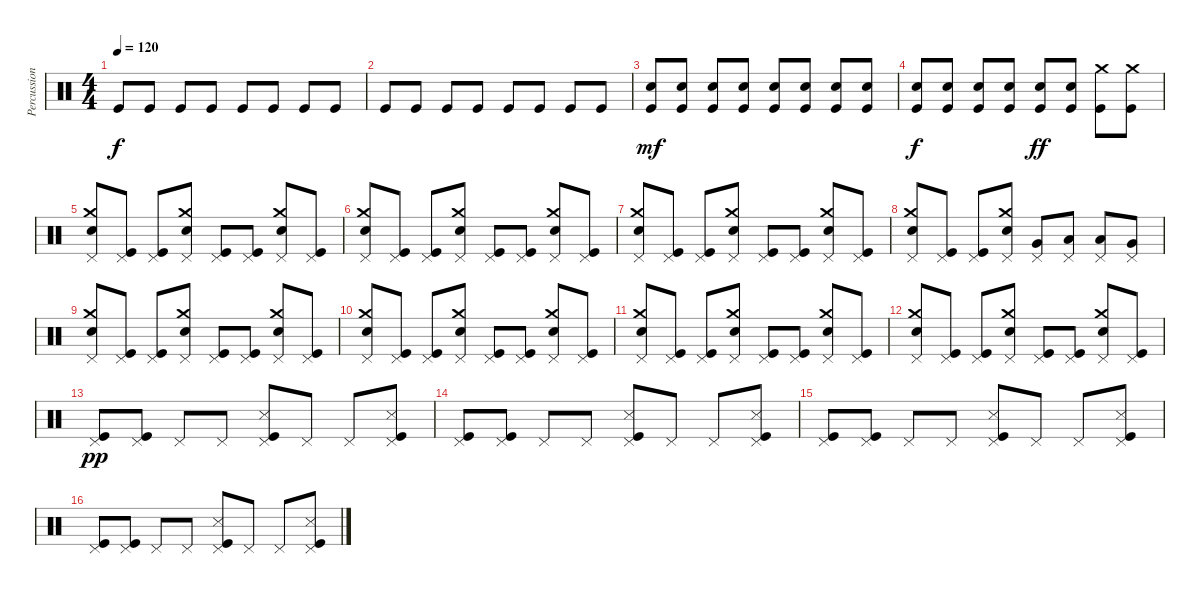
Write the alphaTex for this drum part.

\track ("Percussions" "Percussion") {instrument percussion}
\staff {score}
\articulation defaults
\ts (4 4)
\tempo 120
\clef neutral
\ks c "Kick (hit)".8{dy f} "Kick (hit)".8 "Kick (hit)".8 "Kick (hit)".8 "Kick (hit)".8 "Kick (hit)".8 "Kick (hit)".8 "Kick (hit)".8
|
"Kick (hit)".8 "Kick (hit)".8 "Kick (hit)".8 "Kick (hit)".8 "Kick (hit)".8 "Kick (hit)".8 "Kick (hit)".8 "Kick (hit)".8 |
("Electric Snare (hit)" "Kick (hit)").8{dy mf} ("Electric Snare (hit)" "Kick (hit)").8 ("Electric Snare (hit)" "Kick (hit)").8 ("Electric Snare (hit)" "Kick (hit)").8 ("Electric Snare (hit)" "Kick (hit)").8 ("Electric Snare (hit)" "Kick (hit)").8 ("Electric Snare (hit)" "Kick (hit)").8 ("Electric Snare (hit)" "Kick (hit)").8 |
("Electric Snare (hit)" "Kick (hit)").8{dy f} ("Electric Snare (hit)" "Kick (hit)").8 ("Electric Snare (hit)" "Kick (hit)").8 ("Electric Snare (hit)" "Kick (hit)").8 ("Electric Snare (hit)" "Kick (hit)").8{dy ff} ("Electric Snare (hit)" "Kick (hit)").8 ("Crash medium (hit)" "Kick (hit)").8 ("Crash medium (hit)" "Kick (hit)").8 |
("Crash medium (hit)" "Electric Snare (hit)" "Pedal Hi-Hat (hit)").8 ("Kick (hit)" "Pedal Hi-Hat (hit)").8 ("Kick (hit)" "Pedal Hi-Hat (hit)").8 ("Crash medium (hit)" "Electric Snare (hit)" "Pedal Hi-Hat (hit)").8 ("Kick (hit)" "Pedal Hi-Hat (hit)").8 ("Kick (hit)" "Pedal Hi-Hat (hit)").8 ("Crash medium (hit)" "Electric Snare (hit)" "Pedal Hi-Hat (hit)").8 ("Kick (hit)" "Pedal Hi-Hat (hit)").8 |
("Crash medium (hit)" "Electric Snare (hit)" "Pedal Hi-Hat (hit)").8 ("Kick (hit)" "Pedal Hi-Hat (hit)").8 ("Kick (hit)" "Pedal Hi-Hat (hit)").8 ("Crash medium (hit)" "Electric Snare (hit)" "Pedal Hi-Hat (hit)").8 ("Kick (hit)" "Pedal Hi-Hat (hit)").8 ("Kick (hit)" "Pedal Hi-Hat (hit)").8 ("Crash medium (hit)" "Electric Snare (hit)" "Pedal Hi-Hat (hit)").8 ("Kick (hit)" "Pedal Hi-Hat (hit)").8 |
("Crash medium (hit)" "Electric Snare (hit)" "Pedal Hi-Hat (hit)").8 ("Kick (hit)" "Pedal Hi-Hat (hit)").8 ("Kick (hit)" "Pedal Hi-Hat (hit)").8 ("Crash medium (hit)" "Electric Snare (hit)" "Pedal Hi-Hat (hit)").8 ("Kick (hit)" "Pedal Hi-Hat (hit)").8 ("Kick (hit)" "Pedal Hi-Hat (hit)").8 ("Crash medium (hit)" "Electric Snare (hit)" "Pedal Hi-Hat (hit)").8 ("Kick (hit)" "Pedal Hi-Hat (hit)").8 |
("Crash medium (hit)" "Electric Snare (hit)" "Pedal Hi-Hat (hit)").8 ("Kick (hit)" "Pedal Hi-Hat (hit)").8 ("Kick (hit)" "Pedal Hi-Hat (hit)").8 ("Crash medium (hit)" "Electric Snare (hit)" "Pedal Hi-Hat (hit)").8 ("Very Low Tom (hit)" "Pedal Hi-Hat (hit)").8 ("Low Floor Tom (hit)" "Pedal Hi-Hat (hit)").8 ("Low Tom (hit)" "Pedal Hi-Hat (hit)").8 ("Very Low Tom (hit)" "Pedal Hi-Hat (hit)").8 |
("Crash medium (hit)" "Electric Snare (hit)" "Pedal Hi-Hat (hit)").8 ("Kick (hit)" "Pedal Hi-Hat (hit)").8 ("Kick (hit)" "Pedal Hi-Hat (hit)").8 ("Crash medium (hit)" "Electric Snare (hit)" "Pedal Hi-Hat (hit)").8 ("Kick (hit)" "Pedal Hi-Hat (hit)").8 ("Kick (hit)" "Pedal Hi-Hat (hit)").8 ("Crash medium (hit)" "Electric Snare (hit)" "Pedal Hi-Hat (hit)").8 ("Kick (hit)" "Pedal Hi-Hat (hit)").8 |
("Crash medium (hit)" "Electric Snare (hit)" "Pedal Hi-Hat (hit)").8 ("Kick (hit)" "Pedal Hi-Hat (hit)").8 ("Kick (hit)" "Pedal Hi-Hat (hit)").8 ("Crash medium (hit)" "Electric Snare (hit)" "Pedal Hi-Hat (hit)").8 ("Kick (hit)" "Pedal Hi-Hat (hit)").8 ("Kick (hit)" "Pedal Hi-Hat (hit)").8 ("Crash medium (hit)" "Electric Snare (hit)" "Pedal Hi-Hat (hit)").8 ("Kick (hit)" "Pedal Hi-Hat (hit)").8 |
("Crash medium (hit)" "Electric Snare (hit)" "Pedal Hi-Hat (hit)").8 ("Kick (hit)" "Pedal Hi-Hat (hit)").8 ("Kick (hit)" "Pedal Hi-Hat (hit)").8 ("Crash medium (hit)" "Electric Snare (hit)" "Pedal Hi-Hat (hit)").8 ("Kick (hit)" "Pedal Hi-Hat (hit)").8 ("Kick (hit)" "Pedal Hi-Hat (hit)").8 ("Crash medium (hit)" "Electric Snare (hit)" "Pedal Hi-Hat (hit)").8 ("Kick (hit)" "Pedal Hi-Hat (hit)").8 |
("Crash medium (hit)" "Electric Snare (hit)" "Pedal Hi-Hat (hit)").8 ("Kick (hit)" "Pedal Hi-Hat (hit)").8 ("Kick (hit)" "Pedal Hi-Hat (hit)").8 ("Crash medium (hit)" "Electric Snare (hit)" "Pedal Hi-Hat (hit)").8 ("Kick (hit)" "Pedal Hi-Hat (hit)").8 ("Kick (hit)" "Pedal Hi-Hat (hit)").8 ("Crash medium (hit)" "Electric Snare (hit)" "Pedal Hi-Hat (hit)").8 ("Kick (hit)" "Pedal Hi-Hat (hit)").8 |
("Kick (hit)" "Pedal Hi-Hat (hit)").8{dy pp} ("Kick (hit)" "Pedal Hi-Hat (hit)").8 "Pedal Hi-Hat (hit)".8 "Pedal Hi-Hat (hit)".8 ("Snare (side stick) 3" "Kick (hit)" "Pedal Hi-Hat (hit)").8 "Pedal Hi-Hat (hit)".8 "Pedal Hi-Hat (hit)".8 ("Snare (side stick) 3" "Kick (hit)" "Pedal Hi-Hat (hit)").8 |
("Kick (hit)" "Pedal Hi-Hat (hit)").8 ("Kick (hit)" "Pedal Hi-Hat (hit)").8 "Pedal Hi-Hat (hit)".8 "Pedal Hi-Hat (hit)".8 ("Snare (side stick) 3" "Kick (hit)" "Pedal Hi-Hat (hit)").8 "Pedal Hi-Hat (hit)".8 "Pedal Hi-Hat (hit)".8 ("Snare (side stick) 3" "Kick (hit)" "Pedal Hi-Hat (hit)").8 |
("Kick (hit)" "Pedal Hi-Hat (hit)").8 ("Kick (hit)" "Pedal Hi-Hat (hit)").8 "Pedal Hi-Hat (hit)".8 "Pedal Hi-Hat (hit)".8 ("Snare (side stick) 3" "Kick (hit)" "Pedal Hi-Hat (hit)").8 "Pedal Hi-Hat (hit)".8 "Pedal Hi-Hat (hit)".8 ("Snare (side stick) 3" "Kick (hit)" "Pedal Hi-Hat (hit)").8 |
("Kick (hit)" "Pedal Hi-Hat (hit)").8 ("Kick (hit)" "Pedal Hi-Hat (hit)").8 "Pedal Hi-Hat (hit)".8 "Pedal Hi-Hat (hit)".8 ("Snare (side stick) 3" "Kick (hit)" "Pedal Hi-Hat (hit)").8 "Pedal Hi-Hat (hit)".8 "Pedal Hi-Hat (hit)".8 ("Snare (side stick) 3" "Kick (hit)" "Pedal Hi-Hat (hit)").8
